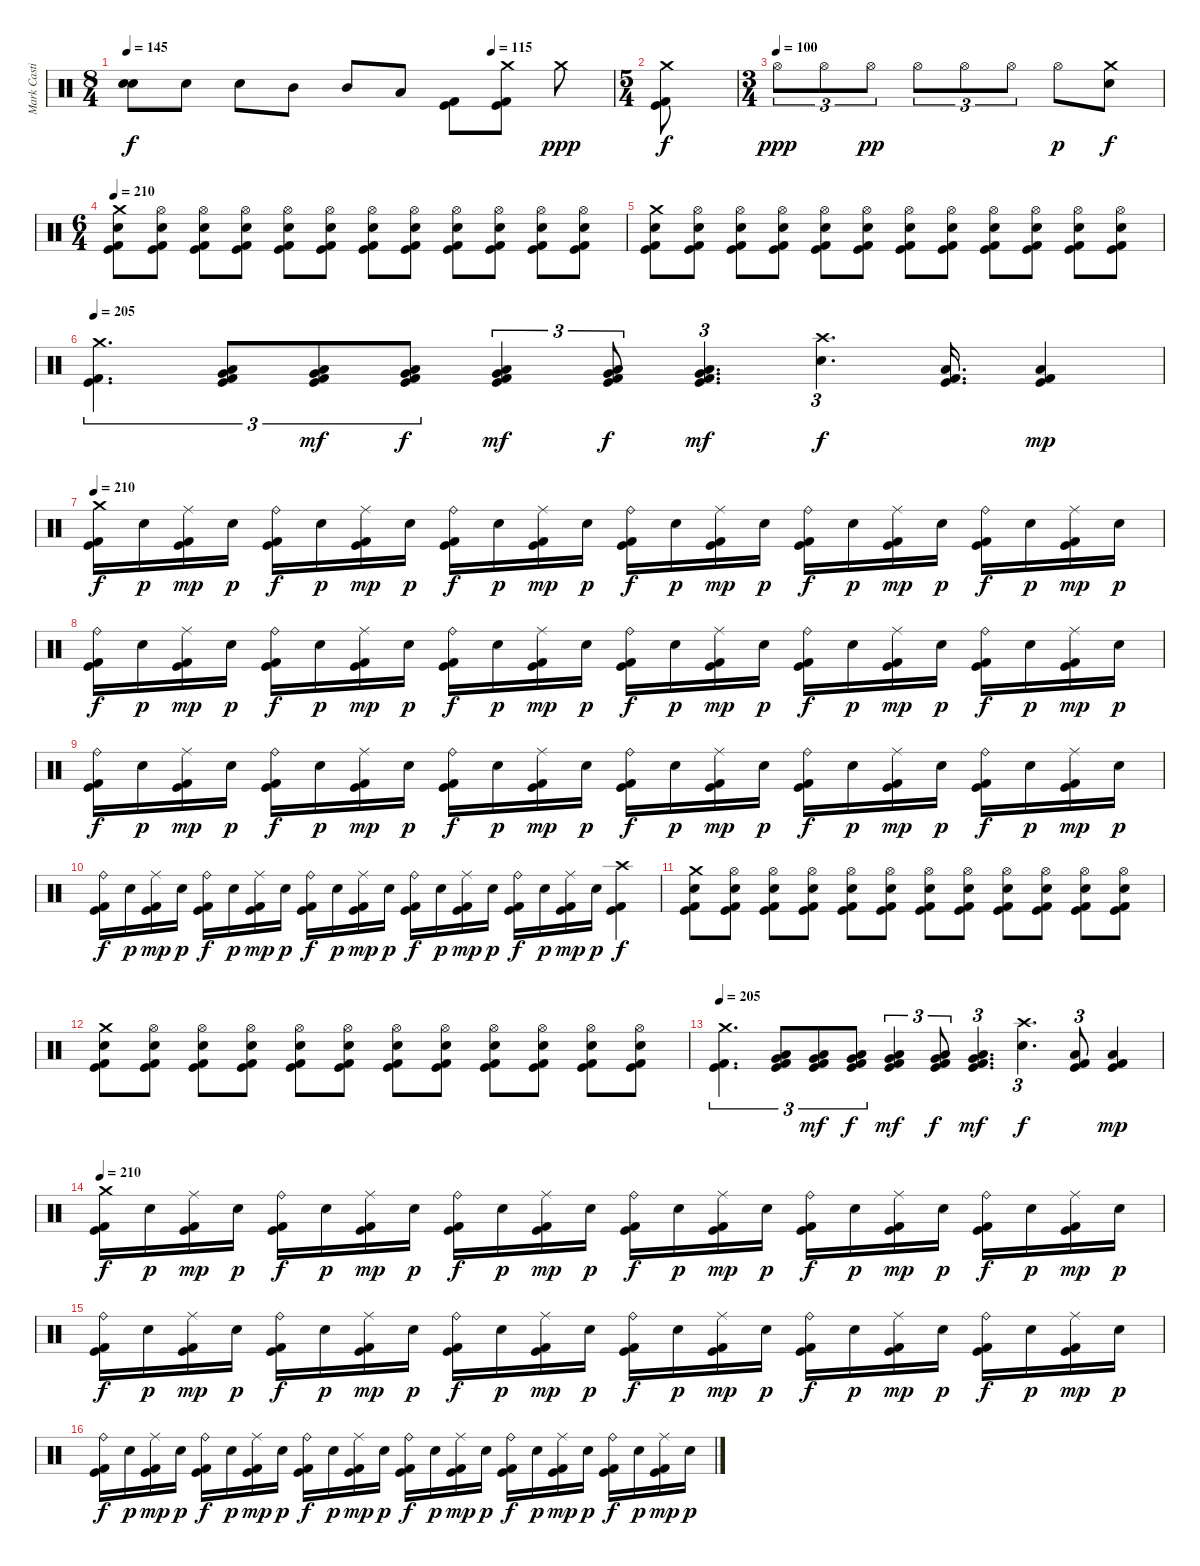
\track ("Mark Castillo" "Mark Casti") {instrument percussion}
\staff {score}
\articulation defaults
\ts (8 4)
\tempo 145
\tempo (115 0.75)
\clef neutral
\ks c
("Electric Snare (hit)" "Electric Snare (hit)").8{bu 240 dy f} "Electric Snare (hit)".8 "Electric Snare (hit)".8 "Mid Tom (hit)".8 "Mid Tom (hit)".8 "Low Tom (hit)".8 ("Kick (hit)" "Kick (hit) 2").8 ("Crash medium (hit)" "Kick (hit)" "Kick (hit) 2").8 "Crash medium (hit)".8{dy ppp} |
\ts (5 4)
("Crash medium (hit)" "Kick (hit)" "Kick (hit) 2").8{dy f} |
\ts (3 4)
\tempo 90
\tempo (100)
"Hi-Hat (open)".8{tu (3 2) dy ppp} "Hi-Hat (open)".8{tu (3 2)} "Hi-Hat (open)".8{tu (3 2) dy pp} "Hi-Hat (open)".8{tu (3 2)} "Hi-Hat (open)".8{tu (3 2)} "Hi-Hat (open)".8{tu (3 2)} "Hi-Hat (open)".8{dy p} ("Crash medium (hit)" "Electric Snare (hit)").8{dy f} |
\ts (6 4)
\tempo 210
("Crash medium (hit)" "Electric Snare (hit)" "Kick (hit)" "Kick (hit) 2").8 ("Hi-Hat (open)" "Electric Snare (hit)" "Kick (hit)" "Kick (hit) 2").8 ("Hi-Hat (open)" "Electric Snare (hit)" "Kick (hit)" "Kick (hit) 2").8 ("Hi-Hat (open)" "Electric Snare (hit)" "Kick (hit)" "Kick (hit) 2").8 ("Hi-Hat (open)" "Electric Snare (hit)" "Kick (hit)" "Kick (hit) 2").8 ("Hi-Hat (open)" "Electric Snare (hit)" "Kick (hit)" "Kick (hit) 2").8 ("Hi-Hat (open)" "Electric Snare (hit)" "Kick (hit)" "Kick (hit) 2").8 ("Hi-Hat (open)" "Electric Snare (hit)" "Kick (hit)" "Kick (hit) 2").8 ("Hi-Hat (open)" "Electric Snare (hit)" "Kick (hit)" "Kick (hit) 2").8 ("Hi-Hat (open)" "Electric Snare (hit)" "Kick (hit)" "Kick (hit) 2").8 ("Hi-Hat (open)" "Electric Snare (hit)" "Kick (hit)" "Kick (hit) 2").8 ("Hi-Hat (open)" "Electric Snare (hit)" "Kick (hit)" "Kick (hit) 2").8 |
("Crash medium (hit)" "Electric Snare (hit)" "Kick (hit)" "Kick (hit) 2").8 ("Hi-Hat (open)" "Electric Snare (hit)" "Kick (hit)" "Kick (hit) 2").8 ("Hi-Hat (open)" "Electric Snare (hit)" "Kick (hit)" "Kick (hit) 2").8 ("Hi-Hat (open)" "Electric Snare (hit)" "Kick (hit)" "Kick (hit) 2").8 ("Hi-Hat (open)" "Electric Snare (hit)" "Kick (hit)" "Kick (hit) 2").8 ("Hi-Hat (open)" "Electric Snare (hit)" "Kick (hit)" "Kick (hit) 2").8 ("Hi-Hat (open)" "Electric Snare (hit)" "Kick (hit)" "Kick (hit) 2").8 ("Hi-Hat (open)" "Electric Snare (hit)" "Kick (hit)" "Kick (hit) 2").8 ("Hi-Hat (open)" "Electric Snare (hit)" "Kick (hit)" "Kick (hit) 2").8 ("Hi-Hat (open)" "Electric Snare (hit)" "Kick (hit)" "Kick (hit) 2").8 ("Hi-Hat (open)" "Electric Snare (hit)" "Kick (hit)" "Kick (hit) 2").8 ("Hi-Hat (open)" "Electric Snare (hit)" "Kick (hit)" "Kick (hit) 2").8 |
\tempo 205
("Crash medium (hit)" "Kick (hit)" "Kick (hit) 2").4{d tu (3 2)} ("Very Low Tom (hit)" "Low Floor Tom (hit)" "Kick (hit)" "Kick (hit) 2").8{tu (3 2)} ("Very Low Tom (hit)" "Low Floor Tom (hit)" "Kick (hit)" "Kick (hit) 2").8{tu (3 2) dy mf} ("Very Low Tom (hit)" "Low Floor Tom (hit)" "Kick (hit)" "Kick (hit) 2").8{tu (3 2) dy f} ("Very Low Tom (hit)" "Low Floor Tom (hit)" "Kick (hit)" "Kick (hit) 2").4{tu (3 2) dy mf} ("Very Low Tom (hit)" "Low Floor Tom (hit)" "Kick (hit)" "Kick (hit) 2").8{tu (3 2) dy f} ("Very Low Tom (hit)" "Low Floor Tom (hit)" "Kick (hit)" "Kick (hit) 2").4{d tu (3 2) dy mf} ("Crash high (hit)" "Electric Snare (hit)").4{d tu (3 2) dy f} ("Low Floor Tom (hit)" "Kick (hit)" "Kick (hit) 2").16{d} ("Low Floor Tom (hit)" "Kick (hit)" "Kick (hit) 2").4{dy mp} |
\tempo 210
("Crash medium (hit)" "Kick (hit)" "Kick (hit) 2").16{dy f} "Electric Snare (hit)".16{dy p} ("Ride (middle)" "Kick (hit)" "Kick (hit) 2").16{dy mp} "Electric Snare (hit)".16{dy p} ("Ride (bell)" "Kick (hit)" "Kick (hit) 2").16{dy f} "Electric Snare (hit)".16{dy p} ("Ride (middle)" "Kick (hit)" "Kick (hit) 2").16{dy mp} "Electric Snare (hit)".16{dy p} ("Ride (bell)" "Kick (hit)" "Kick (hit) 2").16{dy f} "Electric Snare (hit)".16{dy p} ("Ride (middle)" "Kick (hit)" "Kick (hit) 2").16{dy mp} "Electric Snare (hit)".16{dy p} ("Ride (bell)" "Kick (hit)" "Kick (hit) 2").16{dy f} "Electric Snare (hit)".16{dy p} ("Ride (middle)" "Kick (hit)" "Kick (hit) 2").16{dy mp} "Electric Snare (hit)".16{dy p} ("Ride (bell)" "Kick (hit)" "Kick (hit) 2").16{dy f} "Electric Snare (hit)".16{dy p} ("Ride (middle)" "Kick (hit)" "Kick (hit) 2").16{dy mp} "Electric Snare (hit)".16{dy p} ("Ride (bell)" "Kick (hit)" "Kick (hit) 2").16{dy f} "Electric Snare (hit)".16{dy p} ("Ride (middle)" "Kick (hit)" "Kick (hit) 2").16{dy mp} "Electric Snare (hit)".16{dy p} |
("Ride (bell)" "Kick (hit)" "Kick (hit) 2").16{dy f} "Electric Snare (hit)".16{dy p} ("Ride (middle)" "Kick (hit)" "Kick (hit) 2").16{dy mp} "Electric Snare (hit)".16{dy p} ("Ride (bell)" "Kick (hit)" "Kick (hit) 2").16{dy f} "Electric Snare (hit)".16{dy p} ("Ride (middle)" "Kick (hit)" "Kick (hit) 2").16{dy mp} "Electric Snare (hit)".16{dy p} ("Ride (bell)" "Kick (hit)" "Kick (hit) 2").16{dy f} "Electric Snare (hit)".16{dy p} ("Ride (middle)" "Kick (hit)" "Kick (hit) 2").16{dy mp} "Electric Snare (hit)".16{dy p} ("Ride (bell)" "Kick (hit)" "Kick (hit) 2").16{dy f} "Electric Snare (hit)".16{dy p} ("Ride (middle)" "Kick (hit)" "Kick (hit) 2").16{dy mp} "Electric Snare (hit)".16{dy p} ("Ride (bell)" "Kick (hit)" "Kick (hit) 2").16{dy f} "Electric Snare (hit)".16{dy p} ("Ride (middle)" "Kick (hit)" "Kick (hit) 2").16{dy mp} "Electric Snare (hit)".16{dy p} ("Ride (bell)" "Kick (hit)" "Kick (hit) 2").16{dy f} "Electric Snare (hit)".16{dy p} ("Ride (middle)" "Kick (hit)" "Kick (hit) 2").16{dy mp} "Electric Snare (hit)".16{dy p} |
("Ride (bell)" "Kick (hit)" "Kick (hit) 2").16{dy f} "Electric Snare (hit)".16{dy p} ("Ride (middle)" "Kick (hit)" "Kick (hit) 2").16{dy mp} "Electric Snare (hit)".16{dy p} ("Ride (bell)" "Kick (hit)" "Kick (hit) 2").16{dy f} "Electric Snare (hit)".16{dy p} ("Ride (middle)" "Kick (hit)" "Kick (hit) 2").16{dy mp} "Electric Snare (hit)".16{dy p} ("Ride (bell)" "Kick (hit)" "Kick (hit) 2").16{dy f} "Electric Snare (hit)".16{dy p} ("Ride (middle)" "Kick (hit)" "Kick (hit) 2").16{dy mp} "Electric Snare (hit)".16{dy p} ("Ride (bell)" "Kick (hit)" "Kick (hit) 2").16{dy f} "Electric Snare (hit)".16{dy p} ("Ride (middle)" "Kick (hit)" "Kick (hit) 2").16{dy mp} "Electric Snare (hit)".16{dy p} ("Ride (bell)" "Kick (hit)" "Kick (hit) 2").16{dy f} "Electric Snare (hit)".16{dy p} ("Ride (middle)" "Kick (hit)" "Kick (hit) 2").16{dy mp} "Electric Snare (hit)".16{dy p} ("Ride (bell)" "Kick (hit)" "Kick (hit) 2").16{dy f} "Electric Snare (hit)".16{dy p} ("Ride (middle)" "Kick (hit)" "Kick (hit) 2").16{dy mp} "Electric Snare (hit)".16{dy p} |
("Ride (bell)" "Kick (hit)" "Kick (hit) 2").16{dy f} "Electric Snare (hit)".16{dy p} ("Ride (middle)" "Kick (hit)" "Kick (hit) 2").16{dy mp} "Electric Snare (hit)".16{dy p} ("Ride (bell)" "Kick (hit)" "Kick (hit) 2").16{dy f} "Electric Snare (hit)".16{dy p} ("Ride (middle)" "Kick (hit)" "Kick (hit) 2").16{dy mp} "Electric Snare (hit)".16{dy p} ("Ride (bell)" "Kick (hit)" "Kick (hit) 2").16{dy f} "Electric Snare (hit)".16{dy p} ("Ride (middle)" "Kick (hit)" "Kick (hit) 2").16{dy mp} "Electric Snare (hit)".16{dy p} ("Ride (bell)" "Kick (hit)" "Kick (hit) 2").16{dy f} "Electric Snare (hit)".16{dy p} ("Ride (middle)" "Kick (hit)" "Kick (hit) 2").16{dy mp} "Electric Snare (hit)".16{dy p} ("Ride (bell)" "Kick (hit)" "Kick (hit) 2").16{dy f} "Electric Snare (hit)".16{dy p} ("Ride (middle)" "Kick (hit)" "Kick (hit) 2").16{dy mp} "Electric Snare (hit)".16{dy p} ("Crash high (hit)" "Kick (hit)" "Kick (hit) 2").4{dy f} |
("Crash medium (hit)" "Electric Snare (hit)" "Kick (hit)" "Kick (hit) 2").8 ("Hi-Hat (open)" "Electric Snare (hit)" "Kick (hit)" "Kick (hit) 2").8 ("Hi-Hat (open)" "Electric Snare (hit)" "Kick (hit)" "Kick (hit) 2").8 ("Hi-Hat (open)" "Electric Snare (hit)" "Kick (hit)" "Kick (hit) 2").8 ("Hi-Hat (open)" "Electric Snare (hit)" "Kick (hit)" "Kick (hit) 2").8 ("Hi-Hat (open)" "Electric Snare (hit)" "Kick (hit)" "Kick (hit) 2").8 ("Hi-Hat (open)" "Electric Snare (hit)" "Kick (hit)" "Kick (hit) 2").8 ("Hi-Hat (open)" "Electric Snare (hit)" "Kick (hit)" "Kick (hit) 2").8 ("Hi-Hat (open)" "Electric Snare (hit)" "Kick (hit)" "Kick (hit) 2").8 ("Hi-Hat (open)" "Electric Snare (hit)" "Kick (hit)" "Kick (hit) 2").8 ("Hi-Hat (open)" "Electric Snare (hit)" "Kick (hit)" "Kick (hit) 2").8 ("Hi-Hat (open)" "Electric Snare (hit)" "Kick (hit)" "Kick (hit) 2").8 |
("Crash medium (hit)" "Electric Snare (hit)" "Kick (hit)" "Kick (hit) 2").8 ("Hi-Hat (open)" "Electric Snare (hit)" "Kick (hit)" "Kick (hit) 2").8 ("Hi-Hat (open)" "Electric Snare (hit)" "Kick (hit)" "Kick (hit) 2").8 ("Hi-Hat (open)" "Electric Snare (hit)" "Kick (hit)" "Kick (hit) 2").8 ("Hi-Hat (open)" "Electric Snare (hit)" "Kick (hit)" "Kick (hit) 2").8 ("Hi-Hat (open)" "Electric Snare (hit)" "Kick (hit)" "Kick (hit) 2").8 ("Hi-Hat (open)" "Electric Snare (hit)" "Kick (hit)" "Kick (hit) 2").8 ("Hi-Hat (open)" "Electric Snare (hit)" "Kick (hit)" "Kick (hit) 2").8 ("Hi-Hat (open)" "Electric Snare (hit)" "Kick (hit)" "Kick (hit) 2").8 ("Hi-Hat (open)" "Electric Snare (hit)" "Kick (hit)" "Kick (hit) 2").8 ("Hi-Hat (open)" "Electric Snare (hit)" "Kick (hit)" "Kick (hit) 2").8 ("Hi-Hat (open)" "Electric Snare (hit)" "Kick (hit)" "Kick (hit) 2").8 |
\tempo 205
("Crash medium (hit)" "Kick (hit)" "Kick (hit) 2").4{d tu (3 2)} ("Very Low Tom (hit)" "Low Floor Tom (hit)" "Kick (hit)" "Kick (hit) 2").8{tu (3 2)} ("Very Low Tom (hit)" "Low Floor Tom (hit)" "Kick (hit)" "Kick (hit) 2").8{tu (3 2) dy mf} ("Very Low Tom (hit)" "Low Floor Tom (hit)" "Kick (hit)" "Kick (hit) 2").8{tu (3 2) dy f} ("Very Low Tom (hit)" "Low Floor Tom (hit)" "Kick (hit)" "Kick (hit) 2").4{tu (3 2) dy mf} ("Very Low Tom (hit)" "Low Floor Tom (hit)" "Kick (hit)" "Kick (hit) 2").8{tu (3 2) dy f} ("Very Low Tom (hit)" "Low Floor Tom (hit)" "Kick (hit)" "Kick (hit) 2").4{d tu (3 2) dy mf} ("Crash high (hit)" "Electric Snare (hit)").4{d tu (3 2) dy f} ("Low Floor Tom (hit)" "Kick (hit)" "Kick (hit) 2").8{tu (3 2)} ("Low Floor Tom (hit)" "Kick (hit)" "Kick (hit) 2").4{dy mp} |
\tempo 210
("Crash medium (hit)" "Kick (hit)" "Kick (hit) 2").16{dy f} "Electric Snare (hit)".16{dy p} ("Ride (middle)" "Kick (hit)" "Kick (hit) 2").16{dy mp} "Electric Snare (hit)".16{dy p} ("Ride (bell)" "Kick (hit)" "Kick (hit) 2").16{dy f} "Electric Snare (hit)".16{dy p} ("Ride (middle)" "Kick (hit)" "Kick (hit) 2").16{dy mp} "Electric Snare (hit)".16{dy p} ("Ride (bell)" "Kick (hit)" "Kick (hit) 2").16{dy f} "Electric Snare (hit)".16{dy p} ("Ride (middle)" "Kick (hit)" "Kick (hit) 2").16{dy mp} "Electric Snare (hit)".16{dy p} ("Ride (bell)" "Kick (hit)" "Kick (hit) 2").16{dy f} "Electric Snare (hit)".16{dy p} ("Ride (middle)" "Kick (hit)" "Kick (hit) 2").16{dy mp} "Electric Snare (hit)".16{dy p} ("Ride (bell)" "Kick (hit)" "Kick (hit) 2").16{dy f} "Electric Snare (hit)".16{dy p} ("Ride (middle)" "Kick (hit)" "Kick (hit) 2").16{dy mp} "Electric Snare (hit)".16{dy p} ("Ride (bell)" "Kick (hit)" "Kick (hit) 2").16{dy f} "Electric Snare (hit)".16{dy p} ("Ride (middle)" "Kick (hit)" "Kick (hit) 2").16{dy mp} "Electric Snare (hit)".16{dy p} |
("Ride (bell)" "Kick (hit)" "Kick (hit) 2").16{dy f} "Electric Snare (hit)".16{dy p} ("Ride (middle)" "Kick (hit)" "Kick (hit) 2").16{dy mp} "Electric Snare (hit)".16{dy p} ("Ride (bell)" "Kick (hit)" "Kick (hit) 2").16{dy f} "Electric Snare (hit)".16{dy p} ("Ride (middle)" "Kick (hit)" "Kick (hit) 2").16{dy mp} "Electric Snare (hit)".16{dy p} ("Ride (bell)" "Kick (hit)" "Kick (hit) 2").16{dy f} "Electric Snare (hit)".16{dy p} ("Ride (middle)" "Kick (hit)" "Kick (hit) 2").16{dy mp} "Electric Snare (hit)".16{dy p} ("Ride (bell)" "Kick (hit)" "Kick (hit) 2").16{dy f} "Electric Snare (hit)".16{dy p} ("Ride (middle)" "Kick (hit)" "Kick (hit) 2").16{dy mp} "Electric Snare (hit)".16{dy p} ("Ride (bell)" "Kick (hit)" "Kick (hit) 2").16{dy f} "Electric Snare (hit)".16{dy p} ("Ride (middle)" "Kick (hit)" "Kick (hit) 2").16{dy mp} "Electric Snare (hit)".16{dy p} ("Ride (bell)" "Kick (hit)" "Kick (hit) 2").16{dy f} "Electric Snare (hit)".16{dy p} ("Ride (middle)" "Kick (hit)" "Kick (hit) 2").16{dy mp} "Electric Snare (hit)".16{dy p} |
("Ride (bell)" "Kick (hit)" "Kick (hit) 2").16{dy f} "Electric Snare (hit)".16{dy p} ("Ride (middle)" "Kick (hit)" "Kick (hit) 2").16{dy mp} "Electric Snare (hit)".16{dy p} ("Ride (bell)" "Kick (hit)" "Kick (hit) 2").16{dy f} "Electric Snare (hit)".16{dy p} ("Ride (middle)" "Kick (hit)" "Kick (hit) 2").16{dy mp} "Electric Snare (hit)".16{dy p} ("Ride (bell)" "Kick (hit)" "Kick (hit) 2").16{dy f} "Electric Snare (hit)".16{dy p} ("Ride (middle)" "Kick (hit)" "Kick (hit) 2").16{dy mp} "Electric Snare (hit)".16{dy p} ("Ride (bell)" "Kick (hit)" "Kick (hit) 2").16{dy f} "Electric Snare (hit)".16{dy p} ("Ride (middle)" "Kick (hit)" "Kick (hit) 2").16{dy mp} "Electric Snare (hit)".16{dy p} ("Ride (bell)" "Kick (hit)" "Kick (hit) 2").16{dy f} "Electric Snare (hit)".16{dy p} ("Ride (middle)" "Kick (hit)" "Kick (hit) 2").16{dy mp} "Electric Snare (hit)".16{dy p} ("Ride (bell)" "Kick (hit)" "Kick (hit) 2").16{dy f} "Electric Snare (hit)".16{dy p} ("Ride (middle)" "Kick (hit)" "Kick (hit) 2").16{dy mp} "Electric Snare (hit)".16{dy p}
